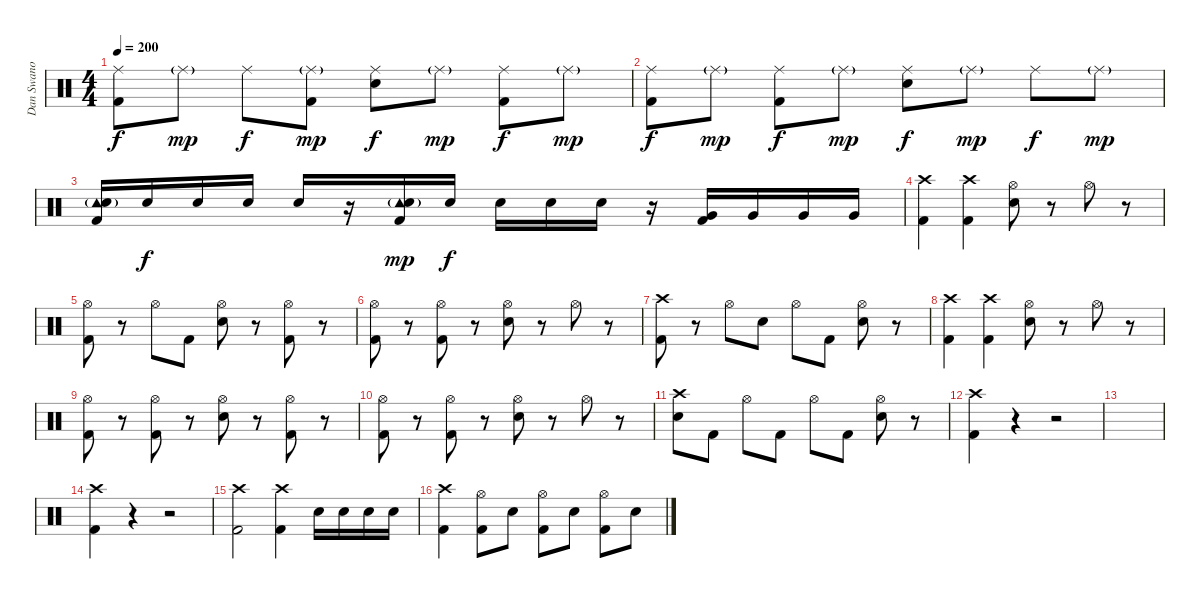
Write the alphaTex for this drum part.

\track ("Dan Swano" "Dan Swano") {instrument percussion}
\staff {score}
\articulation defaults
\ts (4 4)
\tempo 200
\clef neutral
\ks c
("Ride (middle)" "Kick (hit) 2").8{dy f} "Ride (middle)"{g}.8{dy mp} "Ride (middle)".8{dy f} ("Ride (middle)"{g} "Kick (hit) 2").8{dy mp} ("Ride (middle)" "Electric Snare (hit)").8{dy f} "Ride (middle)"{g}.8{dy mp} ("Ride (middle)" "Kick (hit) 2").8{dy f} "Ride (middle)"{g}.8{dy mp} |
("Ride (middle)" "Kick (hit) 2").8{dy f} "Ride (middle)"{g}.8{dy mp} ("Ride (middle)" "Kick (hit) 2").8{dy f} "Ride (middle)"{g}.8{dy mp} ("Ride (middle)" "Electric Snare (hit)").8{dy f} "Ride (middle)"{g}.8{dy mp} "Ride (middle)".8{dy f} "Ride (middle)"{g}.8{dy mp} |
("Tambourine (hit)"{g} "Electric Snare (hit)" "Kick (hit) 2").16 "Electric Snare (hit)".16{dy f} "Electric Snare (hit)".16 "Electric Snare (hit)".16 "Electric Snare (hit)".16 r.16 ("Tambourine (hit)"{g} "Electric Snare (hit)" "Kick (hit) 2").16{dy mp} "Electric Snare (hit)".16{dy f} "Electric Snare (hit)".16 "Electric Snare (hit)".16 "Electric Snare (hit)".16 r.16 ("Very Low Tom (hit)" "Kick (hit) 2").16 "Very Low Tom (hit)".16 "Very Low Tom (hit)".16 "Very Low Tom (hit)".16 |
("Crash high (hit)" "Kick (hit) 2").4 ("Crash high (hit)" "Kick (hit) 2").4 ("Hi-Hat (open)" "Electric Snare (hit)").8 r.8 "Hi-Hat (open)".8 r.8 |
("Hi-Hat (open)" "Kick (hit) 2").8 r.8 "Hi-Hat (open)".8 "Kick (hit) 2".8 ("Hi-Hat (open)" "Electric Snare (hit)").8 r.8 ("Hi-Hat (open)" "Kick (hit) 2").8 r.8 |
("Hi-Hat (open)" "Kick (hit) 2").8 r.8 ("Hi-Hat (open)" "Kick (hit) 2").8 r.8 ("Hi-Hat (open)" "Electric Snare (hit)").8 r.8 "Hi-Hat (open)".8 r.8 |
("Crash high (hit)" "Kick (hit) 2").8 r.8 "Hi-Hat (open)".8 "Electric Snare (hit)".8 "Hi-Hat (open)".8 "Kick (hit) 2".8 ("Hi-Hat (open)" "Electric Snare (hit)").8 r.8 |
("Crash high (hit)" "Kick (hit) 2").4 ("Crash high (hit)" "Kick (hit) 2").4 ("Hi-Hat (open)" "Electric Snare (hit)").8 r.8 "Hi-Hat (open)".8 r.8 |
("Hi-Hat (open)" "Kick (hit) 2").8 r.8 ("Hi-Hat (open)" "Kick (hit) 2").8 r.8 ("Hi-Hat (open)" "Electric Snare (hit)").8 r.8 ("Hi-Hat (open)" "Kick (hit) 2").8 r.8 |
("Hi-Hat (open)" "Kick (hit) 2").8 r.8 ("Hi-Hat (open)" "Kick (hit) 2").8 r.8 ("Hi-Hat (open)" "Electric Snare (hit)").8 r.8 "Hi-Hat (open)".8 r.8 |
("Crash high (hit)" "Electric Snare (hit)").8 "Kick (hit) 2".8 "Hi-Hat (open)".8 "Kick (hit) 2".8 "Hi-Hat (open)".8 "Kick (hit) 2".8 ("Hi-Hat (open)" "Electric Snare (hit)").8 r.8 |
("Crash high (hit)" "Kick (hit) 2").4 r.4 r.2 |
|
("Crash high (hit)" "Kick (hit) 2").4 r.4 r.2 |
("Crash high (hit)" "Kick (hit) 2").2 ("Crash high (hit)" "Kick (hit) 2").4 "Electric Snare (hit)".16 "Electric Snare (hit)".16 "Electric Snare (hit)".16 "Electric Snare (hit)".16 |
("Crash high (hit)" "Kick (hit) 2").4 ("Hi-Hat (open)" "Kick (hit) 2").8 "Electric Snare (hit)".8 ("Hi-Hat (open)" "Kick (hit) 2").8 "Electric Snare (hit)".8 ("Hi-Hat (open)" "Kick (hit) 2").8 "Electric Snare (hit)".8
